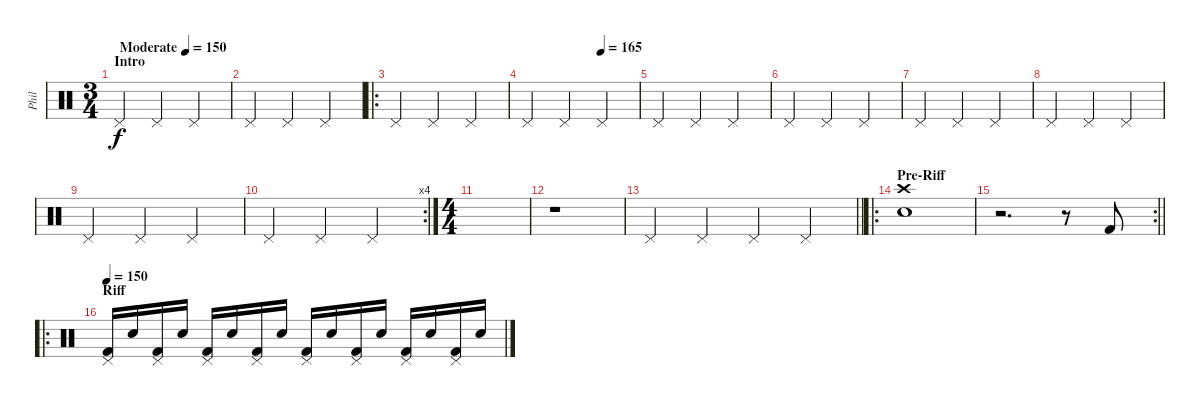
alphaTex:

\track ("Phil" "Phil") {instrument percussion}
\staff {score}
\articulation defaults
\ts (3 4)
\section ("" "Intro")
\tempo (150 "Moderate")
\tempo 165
\tempo (150 "Moderate")
\clef neutral
\ks c "Pedal Hi-Hat (hit)".4{dy f} "Pedal Hi-Hat (hit)".4 "Pedal Hi-Hat (hit)".4
|
"Pedal Hi-Hat (hit)".4 "Pedal Hi-Hat (hit)".4 "Pedal Hi-Hat (hit)".4 |
\ro "Pedal Hi-Hat (hit)".4 "Pedal Hi-Hat (hit)".4 "Pedal Hi-Hat (hit)".4
|
\tempo (165 0.6666666666666666)
"Pedal Hi-Hat (hit)".4 "Pedal Hi-Hat (hit)".4 "Pedal Hi-Hat (hit)".4 |
"Pedal Hi-Hat (hit)".4 "Pedal Hi-Hat (hit)".4 "Pedal Hi-Hat (hit)".4 |
"Pedal Hi-Hat (hit)".4 "Pedal Hi-Hat (hit)".4 "Pedal Hi-Hat (hit)".4 |
"Pedal Hi-Hat (hit)".4 "Pedal Hi-Hat (hit)".4 "Pedal Hi-Hat (hit)".4 |
"Pedal Hi-Hat (hit)".4 "Pedal Hi-Hat (hit)".4 "Pedal Hi-Hat (hit)".4 |
"Pedal Hi-Hat (hit)".4 "Pedal Hi-Hat (hit)".4 "Pedal Hi-Hat (hit)".4 |
\rc 4 "Pedal Hi-Hat (hit)".4 "Pedal Hi-Hat (hit)".4 "Pedal Hi-Hat (hit)".4
|
\ts (4 4)
|
r.1 |
\barLineRight lightlight "Pedal Hi-Hat (hit)".4 "Pedal Hi-Hat (hit)".4 "Pedal Hi-Hat (hit)".4 "Pedal Hi-Hat (hit)".4
|
\ro
\section ("" "Pre-Riff")
("Crash high (hit)" "Electric Snare (hit)").1 |
\rc 2
\barLineRight lightlight
r.2{d} r.8 "Kick (hit) 2".8 |
\ro
\section ("" "Riff")
\tempo 150
("Pedal Hi-Hat (hit)" "Kick (hit) 2").16 "Electric Snare (hit)".16 ("Pedal Hi-Hat (hit)" "Kick (hit) 2").16 "Electric Snare (hit)".16 ("Pedal Hi-Hat (hit)" "Kick (hit) 2").16 "Electric Snare (hit)".16 ("Pedal Hi-Hat (hit)" "Kick (hit) 2").16 "Electric Snare (hit)".16 ("Pedal Hi-Hat (hit)" "Kick (hit) 2").16 "Electric Snare (hit)".16 ("Pedal Hi-Hat (hit)" "Kick (hit) 2").16 "Electric Snare (hit)".16 ("Pedal Hi-Hat (hit)" "Kick (hit) 2").16 "Electric Snare (hit)".16 ("Pedal Hi-Hat (hit)" "Kick (hit) 2").16 "Electric Snare (hit)".16
